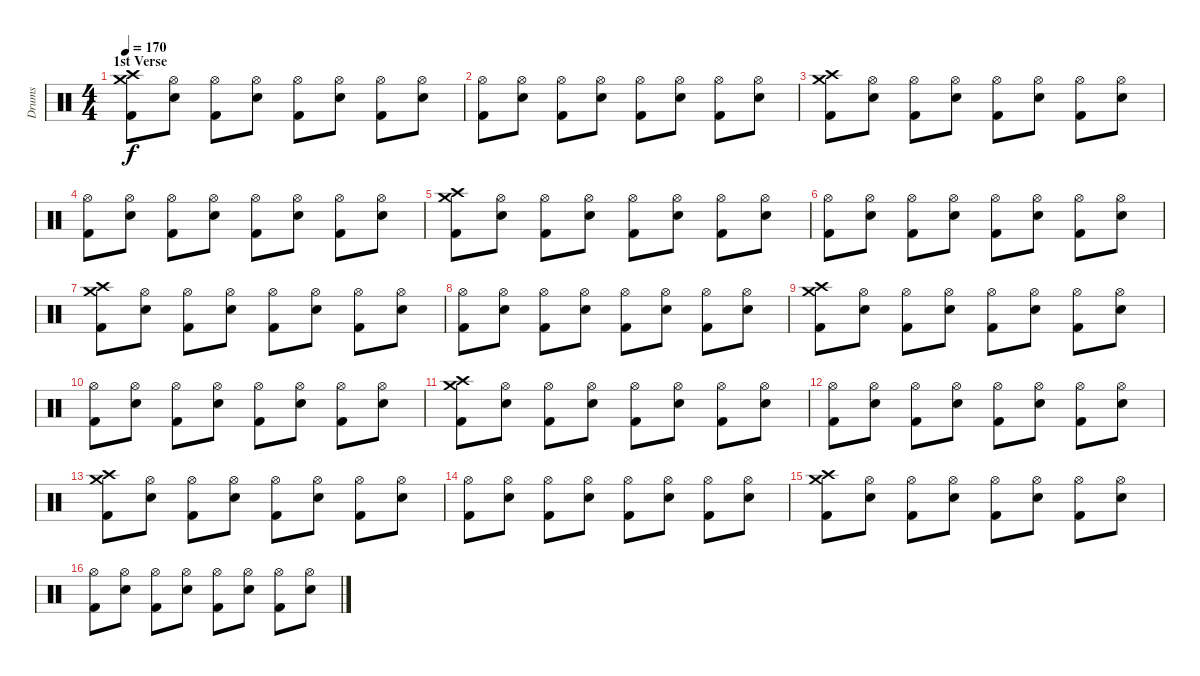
\track ("Drums" "Drums") {instrument percussion}
\staff {score}
\articulation defaults
\ts (4 4)
\section ("" "1st Verse")
\tempo 170
\clef neutral
\ks c
("Crash medium (hit)" "Crash high (hit)" "Kick (hit) 2").8{dy f} ("Hi-Hat (open)" "Snare (hit) 2").8 ("Hi-Hat (open)" "Kick (hit) 2").8 ("Hi-Hat (open)" "Snare (hit) 2").8 ("Hi-Hat (open)" "Kick (hit) 2").8 ("Hi-Hat (open)" "Snare (hit) 2").8 ("Hi-Hat (open)" "Kick (hit) 2").8 ("Hi-Hat (open)" "Snare (hit) 2").8 |
("Hi-Hat (open)" "Kick (hit) 2").8 ("Hi-Hat (open)" "Snare (hit) 2").8 ("Hi-Hat (open)" "Kick (hit) 2").8 ("Hi-Hat (open)" "Snare (hit) 2").8 ("Hi-Hat (open)" "Kick (hit) 2").8 ("Hi-Hat (open)" "Snare (hit) 2").8 ("Hi-Hat (open)" "Kick (hit) 2").8 ("Hi-Hat (open)" "Snare (hit) 2").8 |
("Crash medium (hit)" "Crash high (hit)" "Kick (hit) 2").8 ("Hi-Hat (open)" "Snare (hit) 2").8 ("Hi-Hat (open)" "Kick (hit) 2").8 ("Hi-Hat (open)" "Snare (hit) 2").8 ("Hi-Hat (open)" "Kick (hit) 2").8 ("Hi-Hat (open)" "Snare (hit) 2").8 ("Hi-Hat (open)" "Kick (hit) 2").8 ("Hi-Hat (open)" "Snare (hit) 2").8 |
("Hi-Hat (open)" "Kick (hit) 2").8 ("Hi-Hat (open)" "Snare (hit) 2").8 ("Hi-Hat (open)" "Kick (hit) 2").8 ("Hi-Hat (open)" "Snare (hit) 2").8 ("Hi-Hat (open)" "Kick (hit) 2").8 ("Hi-Hat (open)" "Snare (hit) 2").8 ("Hi-Hat (open)" "Kick (hit) 2").8 ("Hi-Hat (open)" "Snare (hit) 2").8 |
("Crash medium (hit)" "Crash high (hit)" "Kick (hit) 2").8 ("Hi-Hat (open)" "Snare (hit) 2").8 ("Hi-Hat (open)" "Kick (hit) 2").8 ("Hi-Hat (open)" "Snare (hit) 2").8 ("Hi-Hat (open)" "Kick (hit) 2").8 ("Hi-Hat (open)" "Snare (hit) 2").8 ("Hi-Hat (open)" "Kick (hit) 2").8 ("Hi-Hat (open)" "Snare (hit) 2").8 |
("Hi-Hat (open)" "Kick (hit) 2").8 ("Hi-Hat (open)" "Snare (hit) 2").8 ("Hi-Hat (open)" "Kick (hit) 2").8 ("Hi-Hat (open)" "Snare (hit) 2").8 ("Hi-Hat (open)" "Kick (hit) 2").8 ("Hi-Hat (open)" "Snare (hit) 2").8 ("Hi-Hat (open)" "Kick (hit) 2").8 ("Hi-Hat (open)" "Snare (hit) 2").8 |
("Crash medium (hit)" "Crash high (hit)" "Kick (hit) 2").8 ("Hi-Hat (open)" "Snare (hit) 2").8 ("Hi-Hat (open)" "Kick (hit) 2").8 ("Hi-Hat (open)" "Snare (hit) 2").8 ("Hi-Hat (open)" "Kick (hit) 2").8 ("Hi-Hat (open)" "Snare (hit) 2").8 ("Hi-Hat (open)" "Kick (hit) 2").8 ("Hi-Hat (open)" "Snare (hit) 2").8 |
("Hi-Hat (open)" "Kick (hit) 2").8 ("Hi-Hat (open)" "Snare (hit) 2").8 ("Hi-Hat (open)" "Kick (hit) 2").8 ("Hi-Hat (open)" "Snare (hit) 2").8 ("Hi-Hat (open)" "Kick (hit) 2").8 ("Hi-Hat (open)" "Snare (hit) 2").8 ("Hi-Hat (open)" "Kick (hit) 2").8 ("Hi-Hat (open)" "Snare (hit) 2").8 |
("Crash medium (hit)" "Crash high (hit)" "Kick (hit) 2").8 ("Hi-Hat (open)" "Snare (hit) 2").8 ("Hi-Hat (open)" "Kick (hit) 2").8 ("Hi-Hat (open)" "Snare (hit) 2").8 ("Hi-Hat (open)" "Kick (hit) 2").8 ("Hi-Hat (open)" "Snare (hit) 2").8 ("Hi-Hat (open)" "Kick (hit) 2").8 ("Hi-Hat (open)" "Snare (hit) 2").8 |
("Hi-Hat (open)" "Kick (hit) 2").8 ("Hi-Hat (open)" "Snare (hit) 2").8 ("Hi-Hat (open)" "Kick (hit) 2").8 ("Hi-Hat (open)" "Snare (hit) 2").8 ("Hi-Hat (open)" "Kick (hit) 2").8 ("Hi-Hat (open)" "Snare (hit) 2").8 ("Hi-Hat (open)" "Kick (hit) 2").8 ("Hi-Hat (open)" "Snare (hit) 2").8 |
("Crash medium (hit)" "Crash high (hit)" "Kick (hit) 2").8 ("Hi-Hat (open)" "Snare (hit) 2").8 ("Hi-Hat (open)" "Kick (hit) 2").8 ("Hi-Hat (open)" "Snare (hit) 2").8 ("Hi-Hat (open)" "Kick (hit) 2").8 ("Hi-Hat (open)" "Snare (hit) 2").8 ("Hi-Hat (open)" "Kick (hit) 2").8 ("Hi-Hat (open)" "Snare (hit) 2").8 |
("Hi-Hat (open)" "Kick (hit) 2").8 ("Hi-Hat (open)" "Snare (hit) 2").8 ("Hi-Hat (open)" "Kick (hit) 2").8 ("Hi-Hat (open)" "Snare (hit) 2").8 ("Hi-Hat (open)" "Kick (hit) 2").8 ("Hi-Hat (open)" "Snare (hit) 2").8 ("Hi-Hat (open)" "Kick (hit) 2").8 ("Hi-Hat (open)" "Snare (hit) 2").8 |
("Crash medium (hit)" "Crash high (hit)" "Kick (hit) 2").8 ("Hi-Hat (open)" "Snare (hit) 2").8 ("Hi-Hat (open)" "Kick (hit) 2").8 ("Hi-Hat (open)" "Snare (hit) 2").8 ("Hi-Hat (open)" "Kick (hit) 2").8 ("Hi-Hat (open)" "Snare (hit) 2").8 ("Hi-Hat (open)" "Kick (hit) 2").8 ("Hi-Hat (open)" "Snare (hit) 2").8 |
("Hi-Hat (open)" "Kick (hit) 2").8 ("Hi-Hat (open)" "Snare (hit) 2").8 ("Hi-Hat (open)" "Kick (hit) 2").8 ("Hi-Hat (open)" "Snare (hit) 2").8 ("Hi-Hat (open)" "Kick (hit) 2").8 ("Hi-Hat (open)" "Snare (hit) 2").8 ("Hi-Hat (open)" "Kick (hit) 2").8 ("Hi-Hat (open)" "Snare (hit) 2").8 |
("Crash medium (hit)" "Crash high (hit)" "Kick (hit) 2").8 ("Hi-Hat (open)" "Snare (hit) 2").8 ("Hi-Hat (open)" "Kick (hit) 2").8 ("Hi-Hat (open)" "Snare (hit) 2").8 ("Hi-Hat (open)" "Kick (hit) 2").8 ("Hi-Hat (open)" "Snare (hit) 2").8 ("Hi-Hat (open)" "Kick (hit) 2").8 ("Hi-Hat (open)" "Snare (hit) 2").8 |
("Hi-Hat (open)" "Kick (hit) 2").8 ("Hi-Hat (open)" "Snare (hit) 2").8 ("Hi-Hat (open)" "Kick (hit) 2").8 ("Hi-Hat (open)" "Snare (hit) 2").8 ("Hi-Hat (open)" "Kick (hit) 2").8 ("Hi-Hat (open)" "Snare (hit) 2").8 ("Hi-Hat (open)" "Kick (hit) 2").8 ("Hi-Hat (open)" "Snare (hit) 2").8
